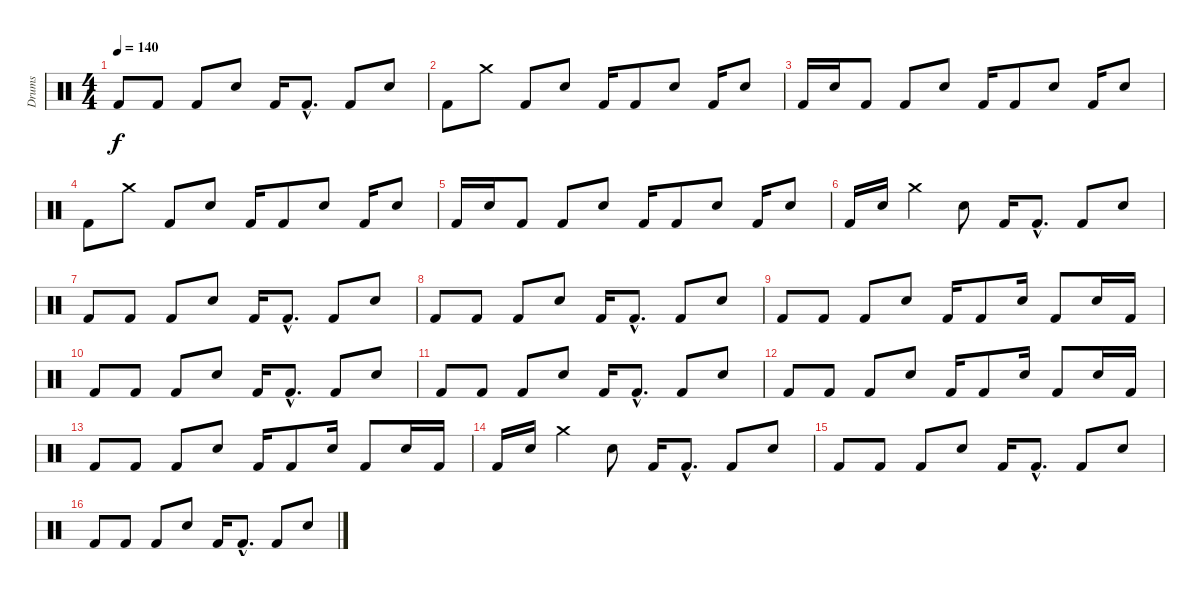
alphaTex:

\track ("Drums" "Drums") {instrument percussion}
\staff {score}
\articulation defaults
\ts (4 4)
\tempo 140
\clef neutral
\ks c "Kick (hit) 2".8{dy f} "Kick (hit) 2".8 "Kick (hit) 2".8 "Snare (hit) 2".8 "Kick (hit) 2".16 "Kick (hit) 2"{hac}.8{d} "Kick (hit) 2".8 "Snare (hit) 2".8
|
"Kick (hit) 2".8 "Crash medium (hit)".8 "Kick (hit) 2".8 "Snare (hit) 2".8 "Kick (hit) 2".16 "Kick (hit) 2".8 "Snare (hit) 2".8 "Kick (hit) 2".16 "Snare (hit) 2".8 |
"Kick (hit) 2".16 "Snare (hit) 2".16 "Kick (hit) 2".8 "Kick (hit) 2".8 "Snare (hit) 2".8 "Kick (hit) 2".16 "Kick (hit) 2".8 "Snare (hit) 2".8 "Kick (hit) 2".16 "Snare (hit) 2".8 |
"Kick (hit) 2".8 "Crash medium (hit)".8 "Kick (hit) 2".8 "Snare (hit) 2".8 "Kick (hit) 2".16 "Kick (hit) 2".8 "Snare (hit) 2".8 "Kick (hit) 2".16 "Snare (hit) 2".8 |
"Kick (hit) 2".16 "Snare (hit) 2".16 "Kick (hit) 2".8 "Kick (hit) 2".8 "Snare (hit) 2".8 "Kick (hit) 2".16 "Kick (hit) 2".8 "Snare (hit) 2".8 "Kick (hit) 2".16 "Snare (hit) 2".8 |
"Kick (hit) 2".16 "Snare (hit) 2".16 "Crash medium (hit)".4 "Snare (hit) 2".8 "Kick (hit) 2".16 "Kick (hit) 2"{hac}.8{d} "Kick (hit) 2".8 "Snare (hit) 2".8 |
"Kick (hit) 2".8 "Kick (hit) 2".8 "Kick (hit) 2".8 "Snare (hit) 2".8 "Kick (hit) 2".16 "Kick (hit) 2"{hac}.8{d} "Kick (hit) 2".8 "Snare (hit) 2".8 |
"Kick (hit) 2".8 "Kick (hit) 2".8 "Kick (hit) 2".8 "Snare (hit) 2".8 "Kick (hit) 2".16 "Kick (hit) 2"{hac}.8{d} "Kick (hit) 2".8 "Snare (hit) 2".8 |
"Kick (hit) 2".8 "Kick (hit) 2".8 "Kick (hit) 2".8 "Snare (hit) 2".8 "Kick (hit) 2".16 "Kick (hit) 2".8 "Snare (hit) 2".16 "Kick (hit) 2".8 "Snare (hit) 2".16 "Kick (hit) 2".16 |
"Kick (hit) 2".8 "Kick (hit) 2".8 "Kick (hit) 2".8 "Snare (hit) 2".8 "Kick (hit) 2".16 "Kick (hit) 2"{hac}.8{d} "Kick (hit) 2".8 "Snare (hit) 2".8 |
"Kick (hit) 2".8 "Kick (hit) 2".8 "Kick (hit) 2".8 "Snare (hit) 2".8 "Kick (hit) 2".16 "Kick (hit) 2"{hac}.8{d} "Kick (hit) 2".8 "Snare (hit) 2".8 |
"Kick (hit) 2".8 "Kick (hit) 2".8 "Kick (hit) 2".8 "Snare (hit) 2".8 "Kick (hit) 2".16 "Kick (hit) 2".8 "Snare (hit) 2".16 "Kick (hit) 2".8 "Snare (hit) 2".16 "Kick (hit) 2".16 |
"Kick (hit) 2".8 "Kick (hit) 2".8 "Kick (hit) 2".8 "Snare (hit) 2".8 "Kick (hit) 2".16 "Kick (hit) 2".8 "Snare (hit) 2".16 "Kick (hit) 2".8 "Snare (hit) 2".16 "Kick (hit) 2".16 |
"Kick (hit) 2".16 "Snare (hit) 2".16 "Crash medium (hit)".4 "Snare (hit) 2".8 "Kick (hit) 2".16 "Kick (hit) 2"{hac}.8{d} "Kick (hit) 2".8 "Snare (hit) 2".8 |
"Kick (hit) 2".8 "Kick (hit) 2".8 "Kick (hit) 2".8 "Snare (hit) 2".8 "Kick (hit) 2".16 "Kick (hit) 2"{hac}.8{d} "Kick (hit) 2".8 "Snare (hit) 2".8 |
"Kick (hit) 2".8 "Kick (hit) 2".8 "Kick (hit) 2".8 "Snare (hit) 2".8 "Kick (hit) 2".16 "Kick (hit) 2"{hac}.8{d} "Kick (hit) 2".8 "Snare (hit) 2".8
